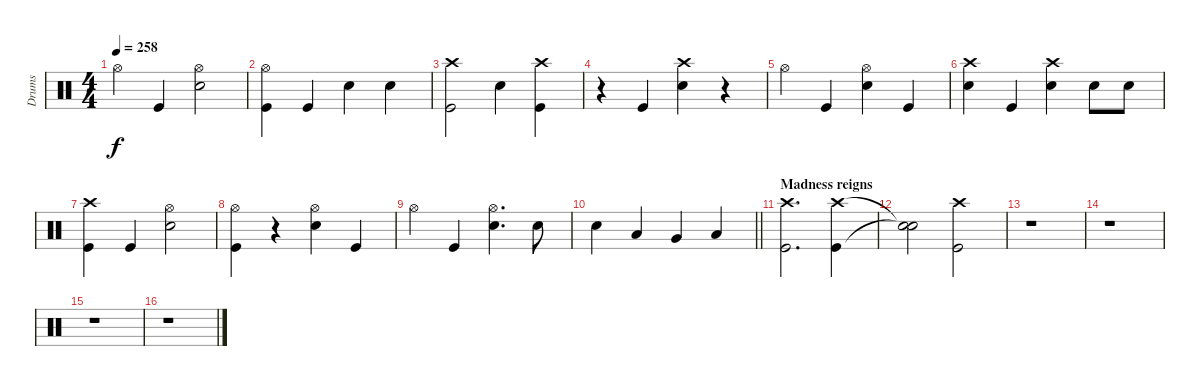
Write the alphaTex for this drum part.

\track ("Drums" "Drums") {instrument percussion}
\staff {score}
\articulation defaults
\ts (4 4)
\tempo 258
\clef neutral
\ks c "Hi-Hat (open)".4{dy f} "Kick (hit)".4
("Hi-Hat (open)" "Electric Snare (hit)").2 |
("Hi-Hat (open)" "Kick (hit)").4 "Kick (hit)".4 "Electric Snare (hit)".4 "Electric Snare (hit)".4 |
("Crash high (hit)" "Kick (hit)").2 "Electric Snare (hit)".4 ("Crash high (hit)" "Kick (hit)").4 |
r.4 "Kick (hit)".4 ("Crash high (hit)" "Electric Snare (hit)").4 r.4 |
"Hi-Hat (open)".4 "Kick (hit)".4 ("Hi-Hat (open)" "Electric Snare (hit)").4 "Kick (hit)".4 |
("Crash high (hit)" "Electric Snare (hit)").4 "Kick (hit)".4 ("Crash high (hit)" "Electric Snare (hit)").4 "Electric Snare (hit)".8 "Electric Snare (hit)".8 |
("Crash high (hit)" "Kick (hit)").4 "Kick (hit)".4 ("Hi-Hat (open)" "Electric Snare (hit)").2 |
("Hi-Hat (open)" "Kick (hit)").4 r.4 ("Hi-Hat (open)" "Electric Snare (hit)").4 "Kick (hit)".4 |
"Hi-Hat (open)".4 "Kick (hit)".4 ("Hi-Hat (open)" "Electric Snare (hit)").4{d} "Electric Snare (hit)".8 |
\barLineRight lightlight "Electric Snare (hit)".4 "Low Tom (hit)".4 "Very Low Tom (hit)".4 "Low Floor Tom (hit)".4
|
\section ("" "Madness reigns")
("Crash high (hit)" "Kick (hit)").2{d} ("Crash high (hit)" "Kick (hit)").4 |
("Snare (hit)"{t} "Snare (hit)"{t}).2 ("Crash high (hit)" "Kick (hit)").2 |
r.1 |
r.1 |
r.1 |
r.1
